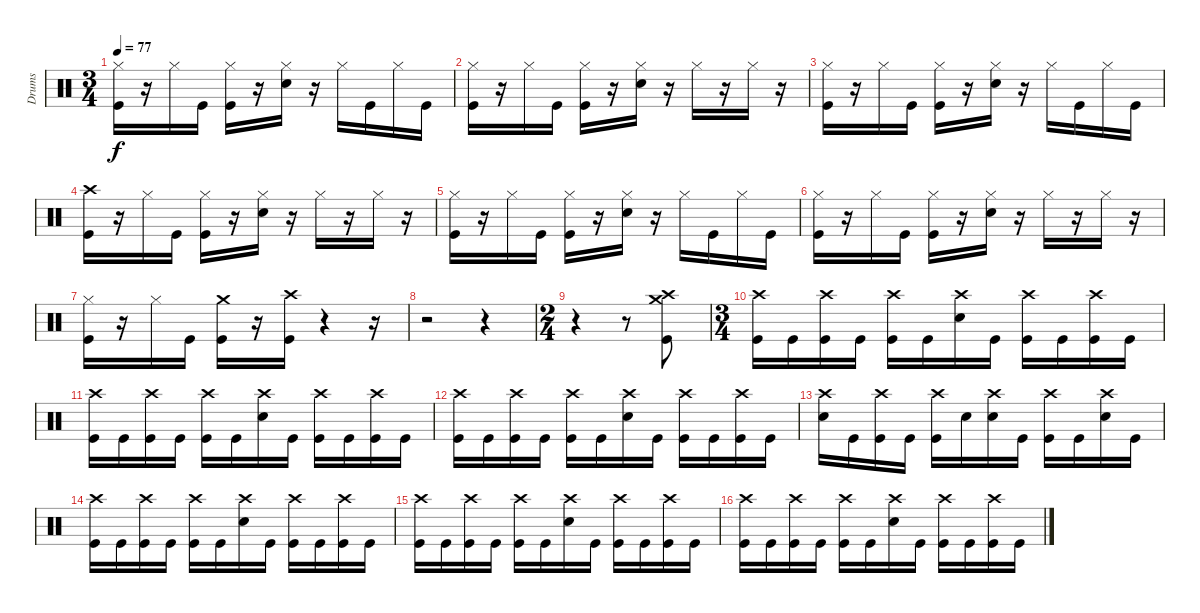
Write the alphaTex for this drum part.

\track ("Drums" "Drums") {instrument percussion}
\staff {score}
\articulation defaults
\ts (3 4)
\tempo 77
\clef neutral
\ks c
("Hi-Hat (closed)" "Kick (hit)").16{dy f} r.16 "Hi-Hat (closed)".16 "Kick (hit)".16 ("Hi-Hat (closed)" "Kick (hit)").16 r.16 ("Hi-Hat (closed)" "Snare (hit) 2").16 r.16 "Hi-Hat (closed)".16 "Kick (hit)".16 "Hi-Hat (closed)".16 "Kick (hit)".16 |
("Hi-Hat (closed)" "Kick (hit)").16 r.16 "Hi-Hat (closed)".16 "Kick (hit)".16 ("Hi-Hat (closed)" "Kick (hit)").16 r.16 ("Hi-Hat (closed)" "Snare (hit) 2").16 r.16 "Hi-Hat (closed)".16 r.16 "Hi-Hat (closed)".16 r.16 |
("Hi-Hat (closed)" "Kick (hit)").16 r.16 "Hi-Hat (closed)".16 "Kick (hit)".16 ("Hi-Hat (closed)" "Kick (hit)").16 r.16 ("Hi-Hat (closed)" "Snare (hit) 2").16 r.16 "Hi-Hat (closed)".16 "Kick (hit)".16 "Hi-Hat (closed)".16 "Kick (hit)".16 |
("Crash high (hit)" "Kick (hit)").16 r.16 "Hi-Hat (closed)".16 "Kick (hit)".16 ("Hi-Hat (closed)" "Kick (hit)").16 r.16 ("Hi-Hat (closed)" "Snare (hit) 2").16 r.16 "Hi-Hat (closed)".16 r.16 "Hi-Hat (closed)".16 r.16 |
("Hi-Hat (closed)" "Kick (hit)").16 r.16 "Hi-Hat (closed)".16 "Kick (hit)".16 ("Hi-Hat (closed)" "Kick (hit)").16 r.16 ("Hi-Hat (closed)" "Snare (hit) 2").16 r.16 "Hi-Hat (closed)".16 "Kick (hit)".16 "Hi-Hat (closed)".16 "Kick (hit)".16 |
("Hi-Hat (closed)" "Kick (hit)").16 r.16 "Hi-Hat (closed)".16 "Kick (hit)".16 ("Hi-Hat (closed)" "Kick (hit)").16 r.16 ("Hi-Hat (closed)" "Snare (hit) 2").16 r.16 "Hi-Hat (closed)".16 r.16 "Hi-Hat (closed)".16 r.16 |
("Hi-Hat (closed)" "Kick (hit)").16 r.16 "Hi-Hat (closed)".16 "Kick (hit)".16 ("Crash medium (hit)" "Kick (hit)").16 r.16 ("Crash high (hit)" "Kick (hit)").16 r.4 r.16 |
r.2 r.4 |
\ts (2 4)
r.4 r.8 ("Crash medium (hit)" "Crash high (hit)" "Kick (hit)").8 |
\ts (3 4)
("Crash high (hit)" "Kick (hit)").16 "Kick (hit)".16 ("Crash high (hit)" "Kick (hit)").16 "Kick (hit)".16 ("Crash high (hit)" "Kick (hit)").16 "Kick (hit)".16 ("Crash high (hit)" "Snare (hit) 2").16 "Kick (hit)".16 ("Crash high (hit)" "Kick (hit)").16 "Kick (hit)".16 ("Crash high (hit)" "Kick (hit)").16 "Kick (hit)".16 |
("Crash high (hit)" "Kick (hit)").16 "Kick (hit)".16 ("Crash high (hit)" "Kick (hit)").16 "Kick (hit)".16 ("Crash high (hit)" "Kick (hit)").16 "Kick (hit)".16 ("Crash high (hit)" "Snare (hit) 2").16 "Kick (hit)".16 ("Crash high (hit)" "Kick (hit)").16 "Kick (hit)".16 ("Crash high (hit)" "Kick (hit)").16 "Kick (hit)".16 |
("Crash high (hit)" "Kick (hit)").16 "Kick (hit)".16 ("Crash high (hit)" "Kick (hit)").16 "Kick (hit)".16 ("Crash high (hit)" "Kick (hit)").16 "Kick (hit)".16 ("Crash high (hit)" "Snare (hit) 2").16 "Kick (hit)".16 ("Crash high (hit)" "Kick (hit)").16 "Kick (hit)".16 ("Crash high (hit)" "Kick (hit)").16 "Kick (hit)".16 |
("Crash high (hit)" "Snare (hit) 2").16 "Kick (hit)".16 ("Crash high (hit)" "Kick (hit)").16 "Kick (hit)".16 ("Crash high (hit)" "Kick (hit)").16 "Snare (hit) 2".16 ("Crash high (hit)" "Snare (hit) 2").16 "Kick (hit)".16 ("Crash high (hit)" "Kick (hit)").16 "Kick (hit)".16 ("Crash high (hit)" "Snare (hit) 2").16 "Kick (hit)".16 |
("Crash high (hit)" "Kick (hit)").16 "Kick (hit)".16 ("Crash high (hit)" "Kick (hit)").16 "Kick (hit)".16 ("Crash high (hit)" "Kick (hit)").16 "Kick (hit)".16 ("Crash high (hit)" "Snare (hit) 2").16 "Kick (hit)".16 ("Crash high (hit)" "Kick (hit)").16 "Kick (hit)".16 ("Crash high (hit)" "Kick (hit)").16 "Kick (hit)".16 |
("Crash high (hit)" "Kick (hit)").16 "Kick (hit)".16 ("Crash high (hit)" "Kick (hit)").16 "Kick (hit)".16 ("Crash high (hit)" "Kick (hit)").16 "Kick (hit)".16 ("Crash high (hit)" "Snare (hit) 2").16 "Kick (hit)".16 ("Crash high (hit)" "Kick (hit)").16 "Kick (hit)".16 ("Crash high (hit)" "Kick (hit)").16 "Kick (hit)".16 |
("Crash high (hit)" "Kick (hit)").16 "Kick (hit)".16 ("Crash high (hit)" "Kick (hit)").16 "Kick (hit)".16 ("Crash high (hit)" "Kick (hit)").16 "Kick (hit)".16 ("Crash high (hit)" "Snare (hit) 2").16 "Kick (hit)".16 ("Crash high (hit)" "Kick (hit)").16 "Kick (hit)".16 ("Crash high (hit)" "Kick (hit)").16 "Kick (hit)".16
